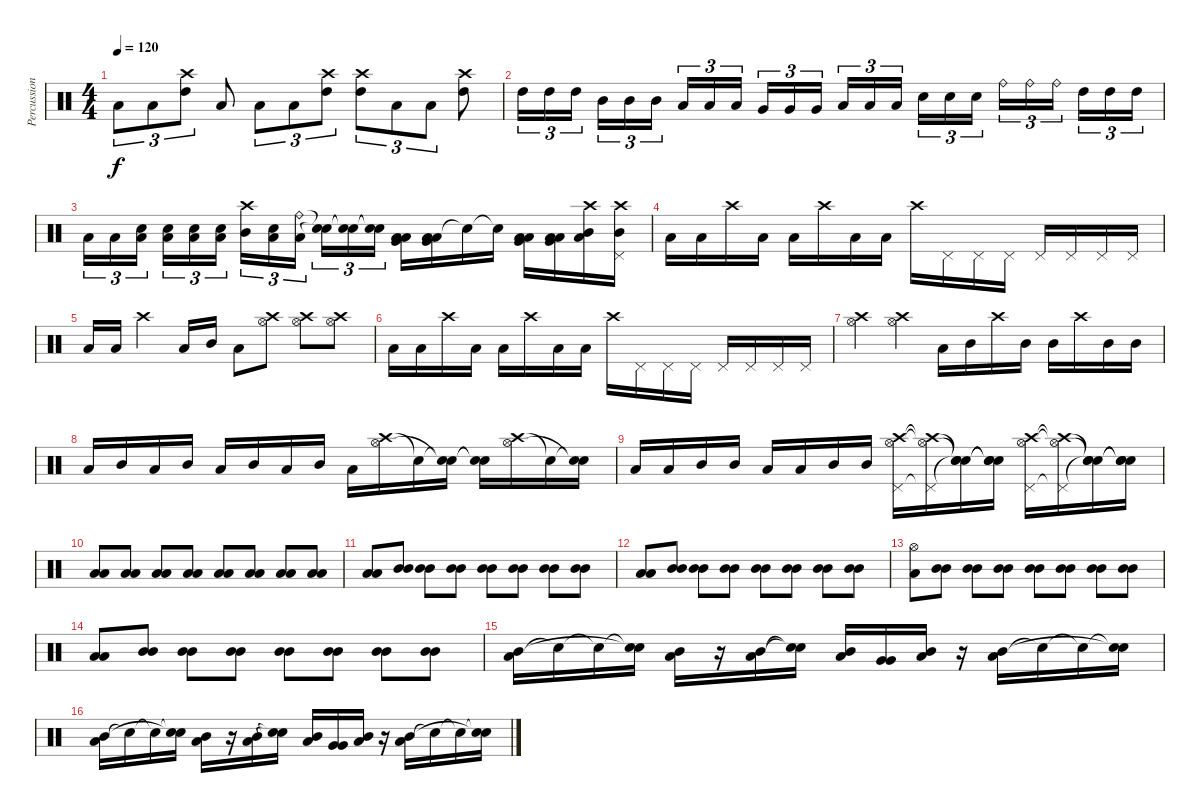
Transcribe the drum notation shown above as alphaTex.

\track ("Percussion" "Percussion") {instrument percussion}
\staff {score}
\articulation defaults
\ts (4 4)
\tempo 120
\clef neutral
\ks c "Low Tom (hit)".8{tu (3 2) dy f} "Low Tom (hit)".8{tu (3 2)}
("Crash high (hit)" "High Tom (hit)").8{tu (3 2)} "Low Tom (hit)".8 "Low Tom (hit)".8{tu (3 2)} "Low Tom (hit)".8{tu (3 2)} ("Crash high (hit)" "High Tom (hit)").8{tu (3 2)} ("Crash high (hit)" "High Tom (hit)").8{tu (3 2)} "Low Tom (hit)".8{tu (3 2)} "Low Tom (hit)".8{tu (3 2)} ("Crash high (hit)" "High Tom (hit)").8 |
"High Tom (hit)".16{tu (3 2)} "High Tom (hit)".16{tu (3 2)} "High Tom (hit)".16{tu (3 2) beam splitsecondary} "Mid Tom (hit)".16{tu (3 2)} "Mid Tom (hit)".16{tu (3 2)} "Mid Tom (hit)".16{tu (3 2)} "Low Tom (hit)".16{tu (3 2)} "Low Tom (hit)".16{tu (3 2)} "Low Tom (hit)".16{tu (3 2) beam splitsecondary} "Very Low Tom (hit)".16{tu (3 2)} "Very Low Tom (hit)".16{tu (3 2)} "Very Low Tom (hit)".16{tu (3 2)} "Low Floor Tom (hit)".16{tu (3 2)} "Low Floor Tom (hit)".16{tu (3 2)} "Low Floor Tom (hit)".16{tu (3 2) beam splitsecondary} "Hand Clap (hit)".16{tu (3 2)} "Hand Clap (hit)".16{tu (3 2)} "Hand Clap (hit)".16{tu (3 2)} "Ride (bell)".16{tu (3 2)} "Ride (bell)".16{tu (3 2)} "Ride (bell)".16{tu (3 2) beam splitsecondary} "High Tom (hit)".16{tu (3 2)} "High Tom (hit)".16{tu (3 2)} "High Tom (hit)".16{tu (3 2)} |
"Low Tom (hit)".16{tu (3 2)} "Low Tom (hit)".16{tu (3 2)} ("Electric Snare (hit)" "Low Tom (hit)").16{tu (3 2) beam splitsecondary} ("Electric Snare (hit)" "Low Tom (hit)").16{tu (3 2)} ("Electric Snare (hit)" "Low Tom (hit)").16{tu (3 2)} ("Electric Snare (hit)" "Low Tom (hit)").16{tu (3 2)} ("Crash high (hit)" "Mid Tom (hit)").16{tu (3 2)} ("Electric Snare (hit)" "Low Tom (hit)").16{tu (3 2)} ("Ride (bell)" "Low Tom (hit)").16{tu (3 2) beam splitsecondary} ("Snare (hit)"{t} "Snare (hit)"{t}).16{tu (3 2)} ("Snare (hit)"{t} "Snare (hit)"{t}).16{tu (3 2)} ("Snare (hit)"{t} "Snare (hit)"{t}).16{tu (3 2)} ("Low Floor Tom (hit)" "Low Tom (hit)" "Very Low Tom (hit)").16 ("Low Floor Tom (hit)" "Low Tom (hit)" "Very Low Tom (hit)").16 "Snare (hit)"{t}.16 "Snare (hit)"{t}.16 ("Very Low Tom (hit)" "Low Floor Tom (hit)" "Low Tom (hit)").16 ("Very Low Tom (hit)" "Low Floor Tom (hit)" "Low Tom (hit)").16 ("Low Tom (hit)" "Mid Tom (hit)" "Crash high (hit)").16 ("Pedal Hi-Hat (hit)" "Mid Tom (hit)" "Crash high (hit)").16 |
"Low Tom (hit)".16 "Low Tom (hit)".16 "Crash high (hit)".16 "Low Tom (hit)".16 "Low Tom (hit)".16 "Crash high (hit)".16 "Low Tom (hit)".16 "Low Tom (hit)".16 "Crash high (hit)".16 "Pedal Hi-Hat (hit)".16 "Pedal Hi-Hat (hit)".16 "Pedal Hi-Hat (hit)".16 "Pedal Hi-Hat (hit)".16 "Pedal Hi-Hat (hit)".16 "Pedal Hi-Hat (hit)".16 "Pedal Hi-Hat (hit)".16 |
"Low Tom (hit)".16 "Low Tom (hit)".16 "Crash high (hit)".4 "Low Tom (hit)".16 "Mid Tom (hit)".16 "Low Tom (hit)".8 ("Hi-Hat (open)" "Crash high (hit)").8 ("Hi-Hat (open)" "Crash high (hit)").8 ("Hi-Hat (open)" "Crash high (hit)").8 |
"Low Tom (hit)".16 "Low Tom (hit)".16 "Crash high (hit)".16 "Low Tom (hit)".16 "Low Tom (hit)".16 "Crash high (hit)".16 "Low Tom (hit)".16 "Low Tom (hit)".16 "Crash high (hit)".16 "Pedal Hi-Hat (hit)".16 "Pedal Hi-Hat (hit)".16 "Pedal Hi-Hat (hit)".16 "Pedal Hi-Hat (hit)".16 "Pedal Hi-Hat (hit)".16 "Pedal Hi-Hat (hit)".16 "Pedal Hi-Hat (hit)".16 |
("Crash high (hit)" "Hi-Hat (open)").4 ("Crash high (hit)" "Hi-Hat (open)").4 "Low Tom (hit)".16 "Mid Tom (hit)".16 "Crash high (hit)".16 "Mid Tom (hit)".16 "Mid Tom (hit)".16 "Crash high (hit)".16 "Mid Tom (hit)".16 "Mid Tom (hit)".16 |
"Low Tom (hit)".16 "Mid Tom (hit)".16 "Low Tom (hit)".16 "Mid Tom (hit)".16 "Low Tom (hit)".16 "Mid Tom (hit)".16 "Low Tom (hit)".16 "Mid Tom (hit)".16 "Low Tom (hit)".16 ("Crash high (hit)" "Hi-Hat (open)").16 "Snare (hit)"{t}.16 ("Snare (hit)"{t} "Snare (hit)"{t}).16 ("Snare (hit)"{t} "Snare (hit)"{t}).16 ("Crash high (hit)" "Hi-Hat (open)").16 "Snare (hit)"{t}.16 ("Snare (hit)"{t} "Snare (hit)"{t}).16 |
"Low Tom (hit)".16 "Low Tom (hit)".16 "Mid Tom (hit)".16 "Mid Tom (hit)".16 "Low Tom (hit)".16 "Low Tom (hit)".16 "Mid Tom (hit)".16 "Mid Tom (hit)".16 ("Crash high (hit)" "Hi-Hat (open)" "Pedal Hi-Hat (hit)").16 ("Crash high (hit)"{t} "Hi-Hat (open)"{t} "Pedal Hi-Hat (hit)"{t}).16 ("Snare (hit)"{t} "Snare (hit)"{t} "Snare (hit)"{t}).16 ("Snare (hit)"{t} "Snare (hit)"{t} "Snare (hit)"{t}).16 ("Crash high (hit)" "Hi-Hat (open)" "Pedal Hi-Hat (hit)").16 ("Crash high (hit)"{t} "Hi-Hat (open)"{t} "Pedal Hi-Hat (hit)"{t}).16 ("Snare (hit)"{t} "Snare (hit)"{t} "Snare (hit)"{t}).16 ("Snare (hit)"{t} "Snare (hit)"{t} "Snare (hit)"{t}).16 |
("Low Tom (hit)" "Low Tom (hit)").8 ("Low Tom (hit)" "Low Tom (hit)").8 ("Low Tom (hit)" "Low Tom (hit)").8 ("Low Tom (hit)" "Low Tom (hit)").8 ("Low Tom (hit)" "Low Tom (hit)").8 ("Low Tom (hit)" "Low Tom (hit)").8 ("Low Tom (hit)" "Low Tom (hit)").8 ("Low Tom (hit)" "Low Tom (hit)").8 |
("Low Tom (hit)" "Low Tom (hit)").8 ("Mid Tom (hit)" "Mid Tom (hit)").8 ("Mid Tom (hit)" "Mid Tom (hit)").8 ("Mid Tom (hit)" "Mid Tom (hit)").8 ("Mid Tom (hit)" "Mid Tom (hit)").8 ("Mid Tom (hit)" "Mid Tom (hit)").8 ("Mid Tom (hit)" "Mid Tom (hit)").8 ("Mid Tom (hit)" "Mid Tom (hit)").8 |
("Low Tom (hit)" "Low Tom (hit)").8 ("Mid Tom (hit)" "Mid Tom (hit)").8 ("Mid Tom (hit)" "Mid Tom (hit)").8 ("Mid Tom (hit)" "Mid Tom (hit)").8 ("Mid Tom (hit)" "Mid Tom (hit)").8 ("Mid Tom (hit)" "Mid Tom (hit)").8 ("Mid Tom (hit)" "Mid Tom (hit)").8 ("Mid Tom (hit)" "Mid Tom (hit)").8 |
("Hi-Hat (open)" "Low Tom (hit)").8 ("Mid Tom (hit)" "Mid Tom (hit)").8 ("Mid Tom (hit)" "Mid Tom (hit)").8 ("Mid Tom (hit)" "Mid Tom (hit)").8 ("Mid Tom (hit)" "Mid Tom (hit)").8 ("Mid Tom (hit)" "Mid Tom (hit)").8 ("Mid Tom (hit)" "Mid Tom (hit)").8 ("Mid Tom (hit)" "Mid Tom (hit)").8 |
("Low Tom (hit)" "Low Tom (hit)").8 ("Mid Tom (hit)" "Mid Tom (hit)").8 ("Mid Tom (hit)" "Mid Tom (hit)").8 ("Mid Tom (hit)" "Mid Tom (hit)").8 ("Mid Tom (hit)" "Mid Tom (hit)").8 ("Mid Tom (hit)" "Mid Tom (hit)").8 ("Mid Tom (hit)" "Mid Tom (hit)").8 ("Mid Tom (hit)" "Mid Tom (hit)").8 |
("Low Tom (hit)" "Mid Tom (hit)").16 "Snare (hit)"{t}.16 "Snare (hit)"{t}.16 ("Snare (hit)"{t} "Snare (hit)"{t}).16 ("Low Tom (hit)" "Mid Tom (hit)").16 r.16 ("Low Tom (hit)" "Mid Tom (hit)").16 ("Snare (hit)"{t} "Snare (hit)"{t}).16 ("Low Tom (hit)" "Mid Tom (hit)").16 ("Very Low Tom (hit)" "Very Low Tom (hit)").16 ("Low Tom (hit)" "Mid Tom (hit)").16 r.16 ("Low Tom (hit)" "Mid Tom (hit)").16 "Snare (hit)"{t}.16 "Snare (hit)"{t}.16 ("Snare (hit)"{t} "Snare (hit)"{t}).16 |
("Low Tom (hit)" "Mid Tom (hit)").16 "Snare (hit)"{t}.16 "Snare (hit)"{t}.16 ("Snare (hit)"{t} "Snare (hit)"{t}).16 ("Low Tom (hit)" "Mid Tom (hit)").16 r.16 ("Low Tom (hit)" "Mid Tom (hit)").16 ("Snare (hit)"{t} "Snare (hit)"{t}).16 ("Low Tom (hit)" "Mid Tom (hit)").16 ("Very Low Tom (hit)" "Very Low Tom (hit)").16 ("Low Tom (hit)" "Mid Tom (hit)").16 r.16 ("Low Tom (hit)" "Mid Tom (hit)").16 "Snare (hit)"{t}.16 "Snare (hit)"{t}.16 ("Snare (hit)"{t} "Snare (hit)"{t}).16
